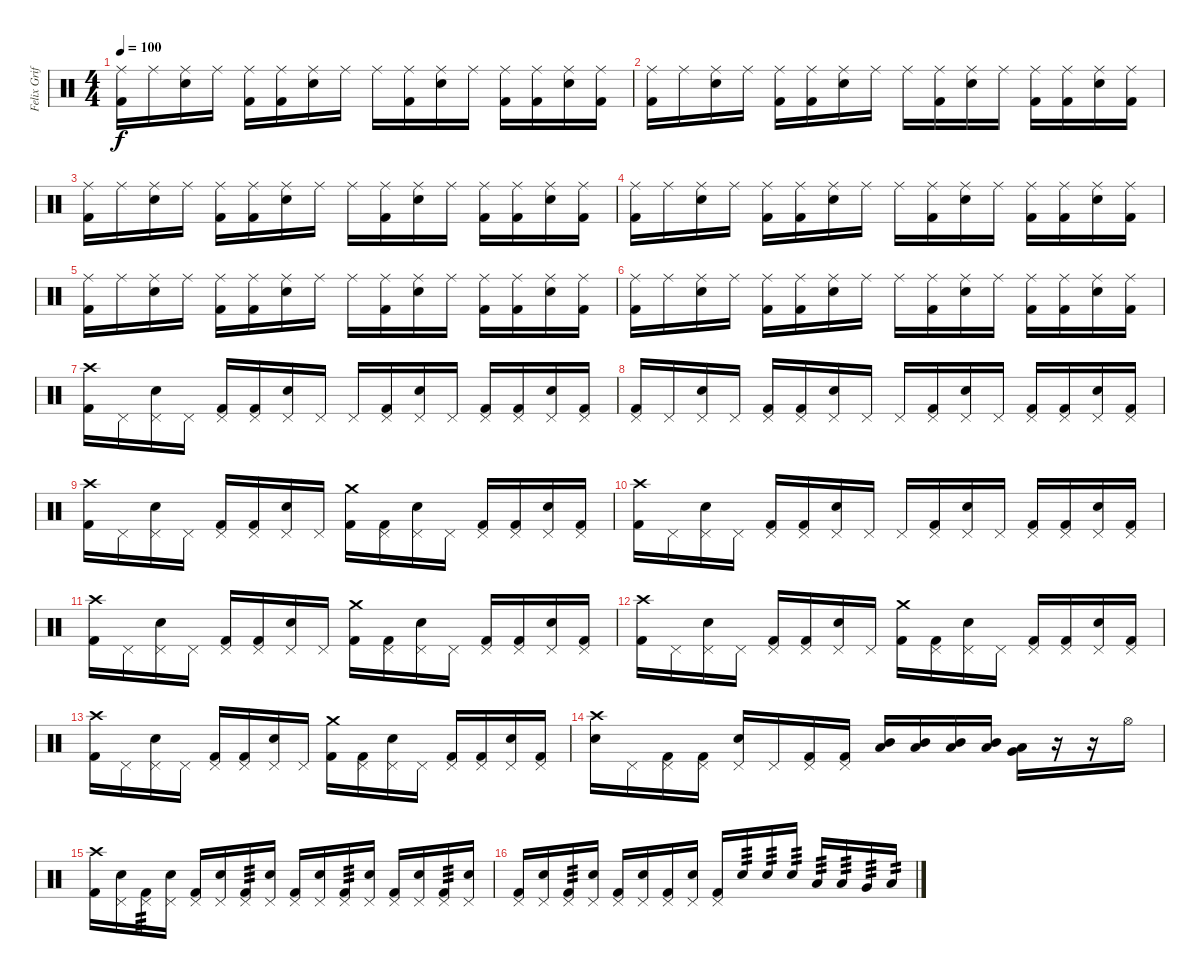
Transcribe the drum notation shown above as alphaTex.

\track ("Felix Griffen" "Felix Grif") {instrument percussion}
\staff {score}
\articulation defaults
\ts (4 4)
\tempo 100
\clef neutral
\ks c
("Ride (middle)" "Kick (hit) 2").16{dy f} "Ride (middle)".16 ("Ride (middle)" "Electric Snare (hit)").16 "Ride (middle)".16 ("Ride (middle)" "Kick (hit) 2").16 ("Ride (middle)" "Kick (hit) 2").16 ("Ride (middle)" "Electric Snare (hit)").16 "Ride (middle)".16 "Ride (middle)".16 ("Ride (middle)" "Kick (hit) 2").16 ("Ride (middle)" "Electric Snare (hit)").16 "Ride (middle)".16 ("Ride (middle)" "Kick (hit) 2").16 ("Ride (middle)" "Kick (hit) 2").16 ("Ride (middle)" "Electric Snare (hit)").16 ("Ride (middle)" "Kick (hit) 2").16 |
("Ride (middle)" "Kick (hit) 2").16 "Ride (middle)".16 ("Ride (middle)" "Electric Snare (hit)").16 "Ride (middle)".16 ("Ride (middle)" "Kick (hit) 2").16 ("Ride (middle)" "Kick (hit) 2").16 ("Ride (middle)" "Electric Snare (hit)").16 "Ride (middle)".16 "Ride (middle)".16 ("Ride (middle)" "Kick (hit) 2").16 ("Ride (middle)" "Electric Snare (hit)").16 "Ride (middle)".16 ("Ride (middle)" "Kick (hit) 2").16 ("Ride (middle)" "Kick (hit) 2").16 ("Ride (middle)" "Electric Snare (hit)").16 ("Ride (middle)" "Kick (hit) 2").16 |
("Ride (middle)" "Kick (hit) 2").16 "Ride (middle)".16 ("Ride (middle)" "Electric Snare (hit)").16 "Ride (middle)".16 ("Ride (middle)" "Kick (hit) 2").16 ("Ride (middle)" "Kick (hit) 2").16 ("Ride (middle)" "Electric Snare (hit)").16 "Ride (middle)".16 "Ride (middle)".16 ("Ride (middle)" "Kick (hit) 2").16 ("Ride (middle)" "Electric Snare (hit)").16 "Ride (middle)".16 ("Ride (middle)" "Kick (hit) 2").16 ("Ride (middle)" "Kick (hit) 2").16 ("Ride (middle)" "Electric Snare (hit)").16 ("Ride (middle)" "Kick (hit) 2").16 |
("Ride (middle)" "Kick (hit) 2").16 "Ride (middle)".16 ("Ride (middle)" "Electric Snare (hit)").16 "Ride (middle)".16 ("Ride (middle)" "Kick (hit) 2").16 ("Ride (middle)" "Kick (hit) 2").16 ("Ride (middle)" "Electric Snare (hit)").16 "Ride (middle)".16 "Ride (middle)".16 ("Ride (middle)" "Kick (hit) 2").16 ("Ride (middle)" "Electric Snare (hit)").16 "Ride (middle)".16 ("Ride (middle)" "Kick (hit) 2").16 ("Ride (middle)" "Kick (hit) 2").16 ("Ride (middle)" "Electric Snare (hit)").16 ("Ride (middle)" "Kick (hit) 2").16 |
("Ride (middle)" "Kick (hit) 2").16 "Ride (middle)".16 ("Ride (middle)" "Electric Snare (hit)").16 "Ride (middle)".16 ("Ride (middle)" "Kick (hit) 2").16 ("Ride (middle)" "Kick (hit) 2").16 ("Ride (middle)" "Electric Snare (hit)").16 "Ride (middle)".16 "Ride (middle)".16 ("Ride (middle)" "Kick (hit) 2").16 ("Ride (middle)" "Electric Snare (hit)").16 "Ride (middle)".16 ("Ride (middle)" "Kick (hit) 2").16 ("Ride (middle)" "Kick (hit) 2").16 ("Ride (middle)" "Electric Snare (hit)").16 ("Ride (middle)" "Kick (hit) 2").16 |
("Ride (middle)" "Kick (hit) 2").16 "Ride (middle)".16 ("Ride (middle)" "Electric Snare (hit)").16 "Ride (middle)".16 ("Ride (middle)" "Kick (hit) 2").16 ("Ride (middle)" "Kick (hit) 2").16 ("Ride (middle)" "Electric Snare (hit)").16 "Ride (middle)".16 "Ride (middle)".16 ("Ride (middle)" "Kick (hit) 2").16 ("Ride (middle)" "Electric Snare (hit)").16 "Ride (middle)".16 ("Ride (middle)" "Kick (hit) 2").16 ("Ride (middle)" "Kick (hit) 2").16 ("Ride (middle)" "Electric Snare (hit)").16 ("Ride (middle)" "Kick (hit) 2").16 |
("Crash high (hit)" "Kick (hit) 2").16 "Pedal Hi-Hat (hit)".16 ("Pedal Hi-Hat (hit)" "Electric Snare (hit)").16 "Pedal Hi-Hat (hit)".16 ("Pedal Hi-Hat (hit)" "Kick (hit) 2").16 ("Pedal Hi-Hat (hit)" "Kick (hit) 2").16 ("Pedal Hi-Hat (hit)" "Electric Snare (hit)").16 "Pedal Hi-Hat (hit)".16 "Pedal Hi-Hat (hit)".16 ("Pedal Hi-Hat (hit)" "Kick (hit) 2").16 ("Pedal Hi-Hat (hit)" "Electric Snare (hit)").16 "Pedal Hi-Hat (hit)".16 ("Pedal Hi-Hat (hit)" "Kick (hit) 2").16 ("Pedal Hi-Hat (hit)" "Kick (hit) 2").16 ("Pedal Hi-Hat (hit)" "Electric Snare (hit)").16 ("Pedal Hi-Hat (hit)" "Kick (hit) 2").16 |
("Pedal Hi-Hat (hit)" "Kick (hit) 2").16 "Pedal Hi-Hat (hit)".16 ("Pedal Hi-Hat (hit)" "Electric Snare (hit)").16 "Pedal Hi-Hat (hit)".16 ("Pedal Hi-Hat (hit)" "Kick (hit) 2").16 ("Pedal Hi-Hat (hit)" "Kick (hit) 2").16 ("Pedal Hi-Hat (hit)" "Electric Snare (hit)").16 "Pedal Hi-Hat (hit)".16 "Pedal Hi-Hat (hit)".16 ("Pedal Hi-Hat (hit)" "Kick (hit) 2").16 ("Pedal Hi-Hat (hit)" "Electric Snare (hit)").16 "Pedal Hi-Hat (hit)".16 ("Pedal Hi-Hat (hit)" "Kick (hit) 2").16 ("Pedal Hi-Hat (hit)" "Kick (hit) 2").16 ("Pedal Hi-Hat (hit)" "Electric Snare (hit)").16 ("Pedal Hi-Hat (hit)" "Kick (hit) 2").16 |
("Crash high (hit)" "Kick (hit) 2").16 "Pedal Hi-Hat (hit)".16 ("Pedal Hi-Hat (hit)" "Electric Snare (hit)").16 "Pedal Hi-Hat (hit)".16 ("Pedal Hi-Hat (hit)" "Kick (hit) 2").16 ("Pedal Hi-Hat (hit)" "Kick (hit) 2").16 ("Pedal Hi-Hat (hit)" "Electric Snare (hit)").16 "Pedal Hi-Hat (hit)".16 ("Crash medium (hit)" "Kick (hit) 2").16 ("Pedal Hi-Hat (hit)" "Kick (hit) 2").16 ("Pedal Hi-Hat (hit)" "Electric Snare (hit)").16 "Pedal Hi-Hat (hit)".16 ("Pedal Hi-Hat (hit)" "Kick (hit) 2").16 ("Pedal Hi-Hat (hit)" "Kick (hit) 2").16 ("Pedal Hi-Hat (hit)" "Electric Snare (hit)").16 ("Pedal Hi-Hat (hit)" "Kick (hit) 2").16 |
("Crash high (hit)" "Kick (hit) 2").16 "Pedal Hi-Hat (hit)".16 ("Pedal Hi-Hat (hit)" "Electric Snare (hit)").16 "Pedal Hi-Hat (hit)".16 ("Pedal Hi-Hat (hit)" "Kick (hit) 2").16 ("Pedal Hi-Hat (hit)" "Kick (hit) 2").16 ("Pedal Hi-Hat (hit)" "Electric Snare (hit)").16 "Pedal Hi-Hat (hit)".16 "Pedal Hi-Hat (hit)".16 ("Pedal Hi-Hat (hit)" "Kick (hit) 2").16 ("Pedal Hi-Hat (hit)" "Electric Snare (hit)").16 "Pedal Hi-Hat (hit)".16 ("Pedal Hi-Hat (hit)" "Kick (hit) 2").16 ("Pedal Hi-Hat (hit)" "Kick (hit) 2").16 ("Pedal Hi-Hat (hit)" "Electric Snare (hit)").16 ("Pedal Hi-Hat (hit)" "Kick (hit) 2").16 |
("Crash high (hit)" "Kick (hit) 2").16 "Pedal Hi-Hat (hit)".16 ("Pedal Hi-Hat (hit)" "Electric Snare (hit)").16 "Pedal Hi-Hat (hit)".16 ("Pedal Hi-Hat (hit)" "Kick (hit) 2").16 ("Pedal Hi-Hat (hit)" "Kick (hit) 2").16 ("Pedal Hi-Hat (hit)" "Electric Snare (hit)").16 "Pedal Hi-Hat (hit)".16 ("Crash medium (hit)" "Kick (hit) 2").16 ("Pedal Hi-Hat (hit)" "Kick (hit) 2").16 ("Pedal Hi-Hat (hit)" "Electric Snare (hit)").16 "Pedal Hi-Hat (hit)".16 ("Pedal Hi-Hat (hit)" "Kick (hit) 2").16 ("Pedal Hi-Hat (hit)" "Kick (hit) 2").16 ("Pedal Hi-Hat (hit)" "Electric Snare (hit)").16 ("Pedal Hi-Hat (hit)" "Kick (hit) 2").16 |
("Crash high (hit)" "Kick (hit) 2").16 "Pedal Hi-Hat (hit)".16 ("Pedal Hi-Hat (hit)" "Electric Snare (hit)").16 "Pedal Hi-Hat (hit)".16 ("Pedal Hi-Hat (hit)" "Kick (hit) 2").16 ("Pedal Hi-Hat (hit)" "Kick (hit) 2").16 ("Pedal Hi-Hat (hit)" "Electric Snare (hit)").16 "Pedal Hi-Hat (hit)".16 ("Crash medium (hit)" "Kick (hit) 2").16 ("Pedal Hi-Hat (hit)" "Kick (hit) 2").16 ("Pedal Hi-Hat (hit)" "Electric Snare (hit)").16 "Pedal Hi-Hat (hit)".16 ("Pedal Hi-Hat (hit)" "Kick (hit) 2").16 ("Pedal Hi-Hat (hit)" "Kick (hit) 2").16 ("Pedal Hi-Hat (hit)" "Electric Snare (hit)").16 ("Pedal Hi-Hat (hit)" "Kick (hit) 2").16 |
("Crash high (hit)" "Kick (hit) 2").16 "Pedal Hi-Hat (hit)".16 ("Pedal Hi-Hat (hit)" "Electric Snare (hit)").16 "Pedal Hi-Hat (hit)".16 ("Pedal Hi-Hat (hit)" "Kick (hit) 2").16 ("Pedal Hi-Hat (hit)" "Kick (hit) 2").16 ("Pedal Hi-Hat (hit)" "Electric Snare (hit)").16 "Pedal Hi-Hat (hit)".16 ("Crash medium (hit)" "Kick (hit) 2").16 ("Pedal Hi-Hat (hit)" "Kick (hit) 2").16 ("Pedal Hi-Hat (hit)" "Electric Snare (hit)").16 "Pedal Hi-Hat (hit)".16 ("Pedal Hi-Hat (hit)" "Kick (hit) 2").16 ("Pedal Hi-Hat (hit)" "Kick (hit) 2").16 ("Pedal Hi-Hat (hit)" "Electric Snare (hit)").16 ("Pedal Hi-Hat (hit)" "Kick (hit) 2").16 |
("Crash high (hit)" "Electric Snare (hit)").16 "Pedal Hi-Hat (hit)".16 ("Pedal Hi-Hat (hit)" "Kick (hit) 2").16 ("Pedal Hi-Hat (hit)" "Kick (hit) 2").16 ("Pedal Hi-Hat (hit)" "Electric Snare (hit)").16 "Pedal Hi-Hat (hit)".16 ("Pedal Hi-Hat (hit)" "Kick (hit) 2").16 ("Pedal Hi-Hat (hit)" "Kick (hit) 2").16 ("Mid Tom (hit)" "Low Tom (hit)").16 ("Mid Tom (hit)" "Low Tom (hit)").16 ("Low Tom (hit)" "Mid Tom (hit)").16 ("Low Tom (hit)" "Mid Tom (hit)").16 ("Very Low Tom (hit)" "Low Tom (hit)").16 r.16 r.16 "Hi-Hat (open)".16 |
("Crash high (hit)" "Kick (hit) 2").16 ("Pedal Hi-Hat (hit)" "Electric Snare (hit)").16 ("Pedal Hi-Hat (hit)" "Kick (hit) 2").16{tp 3} ("Pedal Hi-Hat (hit)" "Electric Snare (hit)").16 ("Pedal Hi-Hat (hit)" "Kick (hit) 2").16 ("Pedal Hi-Hat (hit)" "Electric Snare (hit)").16 ("Pedal Hi-Hat (hit)" "Kick (hit) 2").16{tp 3} ("Pedal Hi-Hat (hit)" "Electric Snare (hit)").16 ("Pedal Hi-Hat (hit)" "Kick (hit) 2").16 ("Pedal Hi-Hat (hit)" "Electric Snare (hit)").16 ("Pedal Hi-Hat (hit)" "Kick (hit) 2").16{tp 3} ("Pedal Hi-Hat (hit)" "Electric Snare (hit)").16 ("Pedal Hi-Hat (hit)" "Kick (hit) 2").16 ("Pedal Hi-Hat (hit)" "Electric Snare (hit)").16 ("Pedal Hi-Hat (hit)" "Kick (hit) 2").16{tp 3} ("Pedal Hi-Hat (hit)" "Electric Snare (hit)").16 |
("Pedal Hi-Hat (hit)" "Kick (hit) 2").16 ("Pedal Hi-Hat (hit)" "Electric Snare (hit)").16 ("Pedal Hi-Hat (hit)" "Kick (hit) 2").16{tp 3} ("Pedal Hi-Hat (hit)" "Electric Snare (hit)").16 ("Pedal Hi-Hat (hit)" "Kick (hit) 2").16 ("Pedal Hi-Hat (hit)" "Electric Snare (hit)").16 ("Pedal Hi-Hat (hit)" "Kick (hit) 2").16 ("Pedal Hi-Hat (hit)" "Electric Snare (hit)").16 ("Pedal Hi-Hat (hit)" "Kick (hit) 2").16 "Electric Snare (hit)".16{tp 3} "Electric Snare (hit)".16{tp 3} "Electric Snare (hit)".16{tp 3} "Low Tom (hit)".16{tp 3} "Low Tom (hit)".16{tp 3} "Very Low Tom (hit)".16{tp 3} "Low Floor Tom (hit)".16{tp 2}
